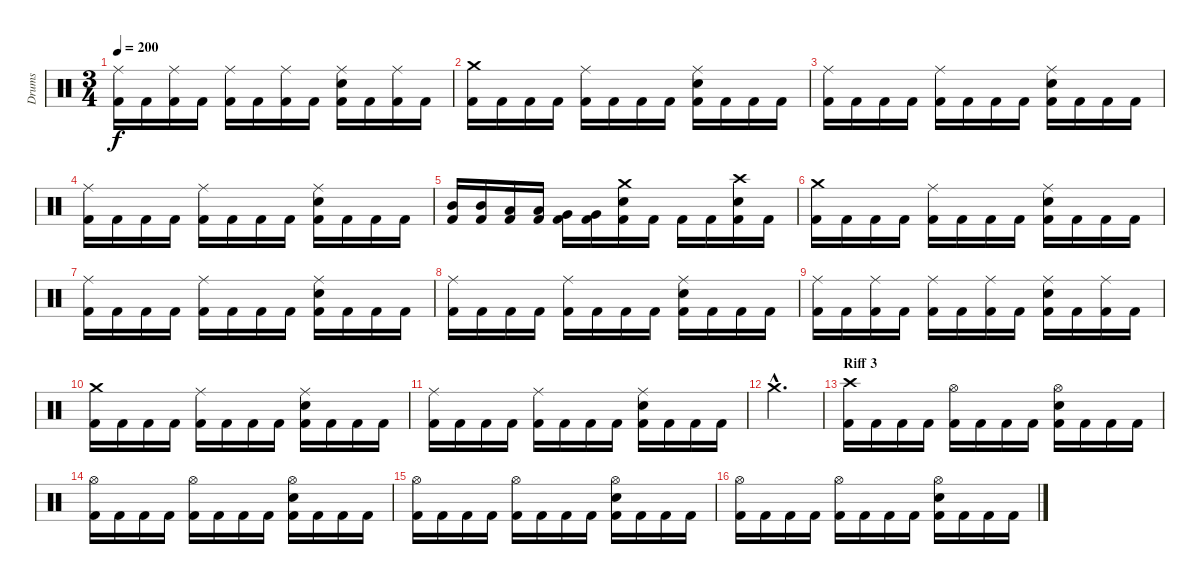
\track ("Drums" "Drums") {instrument percussion}
\staff {score}
\articulation defaults
\ts (3 4)
\tempo 200
\clef neutral
\ks c
("Ride (middle)" "Kick (hit) 2").16{dy f} "Kick (hit) 2".16 ("Ride (middle)" "Kick (hit) 2").16 "Kick (hit) 2".16 ("Ride (middle)" "Kick (hit) 2").16 "Kick (hit) 2".16 ("Ride (middle)" "Kick (hit) 2").16 "Kick (hit) 2".16 ("Ride (middle)" "Electric Snare (hit)" "Kick (hit) 2").16 "Kick (hit) 2".16 ("Ride (middle)" "Kick (hit) 2").16 "Kick (hit) 2".16 |
("Crash medium (hit)" "Kick (hit) 2").16 "Kick (hit) 2".16 "Kick (hit) 2".16 "Kick (hit) 2".16 ("Ride (middle)" "Kick (hit) 2").16 "Kick (hit) 2".16 "Kick (hit) 2".16 "Kick (hit) 2".16 ("Ride (middle)" "Electric Snare (hit)" "Kick (hit) 2").16 "Kick (hit) 2".16 "Kick (hit) 2".16 "Kick (hit) 2".16 |
("Ride (middle)" "Kick (hit) 2").16 "Kick (hit) 2".16 "Kick (hit) 2".16 "Kick (hit) 2".16 ("Ride (middle)" "Kick (hit) 2").16 "Kick (hit) 2".16 "Kick (hit) 2".16 "Kick (hit) 2".16 ("Ride (middle)" "Electric Snare (hit)" "Kick (hit) 2").16 "Kick (hit) 2".16 "Kick (hit) 2".16 "Kick (hit) 2".16 |
("Ride (middle)" "Kick (hit) 2").16 "Kick (hit) 2".16 "Kick (hit) 2".16 "Kick (hit) 2".16 ("Ride (middle)" "Kick (hit) 2").16 "Kick (hit) 2".16 "Kick (hit) 2".16 "Kick (hit) 2".16 ("Ride (middle)" "Electric Snare (hit)" "Kick (hit) 2").16 "Kick (hit) 2".16 "Kick (hit) 2".16 "Kick (hit) 2".16 |
("Mid Tom (hit)" "Kick (hit) 2").16 ("Mid Tom (hit)" "Kick (hit) 2").16 ("Low Tom (hit)" "Kick (hit) 2").16 ("Low Tom (hit)" "Kick (hit) 2").16 ("Very Low Tom (hit)" "Kick (hit) 2").16 ("Very Low Tom (hit)" "Kick (hit) 2").16 ("Crash medium (hit)" "Electric Snare (hit)" "Kick (hit) 2").16 "Kick (hit) 2".16 "Kick (hit) 2".16 "Kick (hit) 2".16 ("Crash high (hit)" "Electric Snare (hit)" "Kick (hit) 2").16 "Kick (hit) 2".16 |
("Crash medium (hit)" "Kick (hit) 2").16 "Kick (hit) 2".16 "Kick (hit) 2".16 "Kick (hit) 2".16 ("Ride (middle)" "Kick (hit) 2").16 "Kick (hit) 2".16 "Kick (hit) 2".16 "Kick (hit) 2".16 ("Ride (middle)" "Electric Snare (hit)" "Kick (hit) 2").16 "Kick (hit) 2".16 "Kick (hit) 2".16 "Kick (hit) 2".16 |
("Ride (middle)" "Kick (hit) 2").16 "Kick (hit) 2".16 "Kick (hit) 2".16 "Kick (hit) 2".16 ("Ride (middle)" "Kick (hit) 2").16 "Kick (hit) 2".16 "Kick (hit) 2".16 "Kick (hit) 2".16 ("Ride (middle)" "Electric Snare (hit)" "Kick (hit) 2").16 "Kick (hit) 2".16 "Kick (hit) 2".16 "Kick (hit) 2".16 |
("Ride (middle)" "Kick (hit) 2").16 "Kick (hit) 2".16 "Kick (hit) 2".16 "Kick (hit) 2".16 ("Ride (middle)" "Kick (hit) 2").16 "Kick (hit) 2".16 "Kick (hit) 2".16 "Kick (hit) 2".16 ("Ride (middle)" "Electric Snare (hit)" "Kick (hit) 2").16 "Kick (hit) 2".16 "Kick (hit) 2".16 "Kick (hit) 2".16 |
("Ride (middle)" "Kick (hit) 2").16 "Kick (hit) 2".16 ("Ride (middle)" "Kick (hit) 2").16 "Kick (hit) 2".16 ("Ride (middle)" "Kick (hit) 2").16 "Kick (hit) 2".16 ("Ride (middle)" "Kick (hit) 2").16 "Kick (hit) 2".16 ("Ride (middle)" "Electric Snare (hit)" "Kick (hit) 2").16 "Kick (hit) 2".16 ("Ride (middle)" "Kick (hit) 2").16 "Kick (hit) 2".16 |
("Crash medium (hit)" "Kick (hit) 2").16 "Kick (hit) 2".16 "Kick (hit) 2".16 "Kick (hit) 2".16 ("Ride (middle)" "Kick (hit) 2").16 "Kick (hit) 2".16 "Kick (hit) 2".16 "Kick (hit) 2".16 ("Ride (middle)" "Electric Snare (hit)" "Kick (hit) 2").16 "Kick (hit) 2".16 "Kick (hit) 2".16 "Kick (hit) 2".16 |
("Ride (middle)" "Kick (hit) 2").16 "Kick (hit) 2".16 "Kick (hit) 2".16 "Kick (hit) 2".16 ("Ride (middle)" "Kick (hit) 2").16 "Kick (hit) 2".16 "Kick (hit) 2".16 "Kick (hit) 2".16 ("Ride (middle)" "Electric Snare (hit)" "Kick (hit) 2").16 "Kick (hit) 2".16 "Kick (hit) 2".16 "Kick (hit) 2".16 |
"Crash medium (hit)"{hac}.2{d} |
\section ("" "Riff 3")
("Crash high (hit)" "Kick (hit) 2").16 "Kick (hit) 2".16 "Kick (hit) 2".16 "Kick (hit) 2".16 ("Hi-Hat (open)" "Kick (hit) 2").16 "Kick (hit) 2".16 "Kick (hit) 2".16 "Kick (hit) 2".16 ("Hi-Hat (open)" "Electric Snare (hit)" "Kick (hit) 2").16 "Kick (hit) 2".16 "Kick (hit) 2".16 "Kick (hit) 2".16 |
("Hi-Hat (open)" "Kick (hit) 2").16 "Kick (hit) 2".16 "Kick (hit) 2".16 "Kick (hit) 2".16 ("Hi-Hat (open)" "Kick (hit) 2").16 "Kick (hit) 2".16 "Kick (hit) 2".16 "Kick (hit) 2".16 ("Hi-Hat (open)" "Electric Snare (hit)" "Kick (hit) 2").16 "Kick (hit) 2".16 "Kick (hit) 2".16 "Kick (hit) 2".16 |
("Hi-Hat (open)" "Kick (hit) 2").16 "Kick (hit) 2".16 "Kick (hit) 2".16 "Kick (hit) 2".16 ("Hi-Hat (open)" "Kick (hit) 2").16 "Kick (hit) 2".16 "Kick (hit) 2".16 "Kick (hit) 2".16 ("Hi-Hat (open)" "Electric Snare (hit)" "Kick (hit) 2").16 "Kick (hit) 2".16 "Kick (hit) 2".16 "Kick (hit) 2".16 |
("Hi-Hat (open)" "Kick (hit) 2").16 "Kick (hit) 2".16 "Kick (hit) 2".16 "Kick (hit) 2".16 ("Hi-Hat (open)" "Kick (hit) 2").16 "Kick (hit) 2".16 "Kick (hit) 2".16 "Kick (hit) 2".16 ("Hi-Hat (open)" "Electric Snare (hit)" "Kick (hit) 2").16 "Kick (hit) 2".16 "Kick (hit) 2".16 "Kick (hit) 2".16
